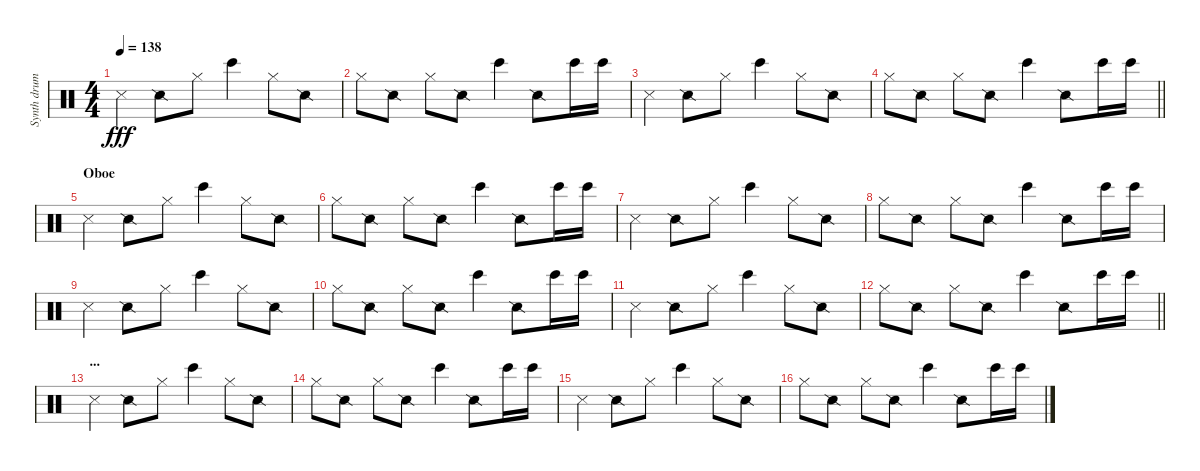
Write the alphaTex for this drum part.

\track ("Synth drums" "Synth drum") {instrument percussion}
\staff {score}
\articulation defaults
\ts (4 4)
\tempo 138
\clef neutral
\ks c "Metronome (hit)".4{dy fff volume 8} "Snare (side stick) 2".8 "Hi-Hat (closed)".8 "Bongo High (hit)".4 "Hi-Hat (closed)".8 "Snare (side stick) 2".8
|
"Hi-Hat (closed)".8 "Snare (side stick) 2".8 "Hi-Hat (closed)".8 "Snare (side stick) 2".8 "Bongo High (hit)".4 "Snare (side stick) 2".8 "Bongo High (hit)".16 "Bongo High (hit)".16 |
"Metronome (hit)".4 "Snare (side stick) 2".8 "Hi-Hat (closed)".8 "Bongo High (hit)".4 "Hi-Hat (closed)".8 "Snare (side stick) 2".8 |
\barLineRight lightlight "Hi-Hat (closed)".8 "Snare (side stick) 2".8 "Hi-Hat (closed)".8 "Snare (side stick) 2".8 "Bongo High (hit)".4 "Snare (side stick) 2".8 "Bongo High (hit)".16 "Bongo High (hit)".16
|
\section ("" "Oboe")
"Metronome (hit)".4{volume 7} "Snare (side stick) 2".8 "Hi-Hat (closed)".8 "Bongo High (hit)".4 "Hi-Hat (closed)".8 "Snare (side stick) 2".8 |
"Hi-Hat (closed)".8 "Snare (side stick) 2".8 "Hi-Hat (closed)".8 "Snare (side stick) 2".8 "Bongo High (hit)".4 "Snare (side stick) 2".8 "Bongo High (hit)".16 "Bongo High (hit)".16 |
"Metronome (hit)".4 "Snare (side stick) 2".8 "Hi-Hat (closed)".8 "Bongo High (hit)".4 "Hi-Hat (closed)".8 "Snare (side stick) 2".8 |
"Hi-Hat (closed)".8 "Snare (side stick) 2".8 "Hi-Hat (closed)".8 "Snare (side stick) 2".8 "Bongo High (hit)".4 "Snare (side stick) 2".8 "Bongo High (hit)".16 "Bongo High (hit)".16 |
"Metronome (hit)".4{volume 6} "Snare (side stick) 2".8 "Hi-Hat (closed)".8 "Bongo High (hit)".4 "Hi-Hat (closed)".8 "Snare (side stick) 2".8 |
"Hi-Hat (closed)".8 "Snare (side stick) 2".8 "Hi-Hat (closed)".8 "Snare (side stick) 2".8 "Bongo High (hit)".4 "Snare (side stick) 2".8 "Bongo High (hit)".16 "Bongo High (hit)".16 |
"Metronome (hit)".4 "Snare (side stick) 2".8 "Hi-Hat (closed)".8 "Bongo High (hit)".4 "Hi-Hat (closed)".8 "Snare (side stick) 2".8 |
\barLineRight lightlight "Hi-Hat (closed)".8 "Snare (side stick) 2".8 "Hi-Hat (closed)".8 "Snare (side stick) 2".8 "Bongo High (hit)".4 "Snare (side stick) 2".8 "Bongo High (hit)".16 "Bongo High (hit)".16
|
\section ("" "...")
"Metronome (hit)".4{volume 3} "Snare (side stick) 2".8 "Hi-Hat (closed)".8 "Bongo High (hit)".4 "Hi-Hat (closed)".8 "Snare (side stick) 2".8 |
"Hi-Hat (closed)".8 "Snare (side stick) 2".8 "Hi-Hat (closed)".8 "Snare (side stick) 2".8 "Bongo High (hit)".4 "Snare (side stick) 2".8 "Bongo High (hit)".16 "Bongo High (hit)".16 |
"Metronome (hit)".4 "Snare (side stick) 2".8 "Hi-Hat (closed)".8 "Bongo High (hit)".4 "Hi-Hat (closed)".8 "Snare (side stick) 2".8 |
"Hi-Hat (closed)".8 "Snare (side stick) 2".8 "Hi-Hat (closed)".8 "Snare (side stick) 2".8 "Bongo High (hit)".4 "Snare (side stick) 2".8 "Bongo High (hit)".16 "Bongo High (hit)".16
